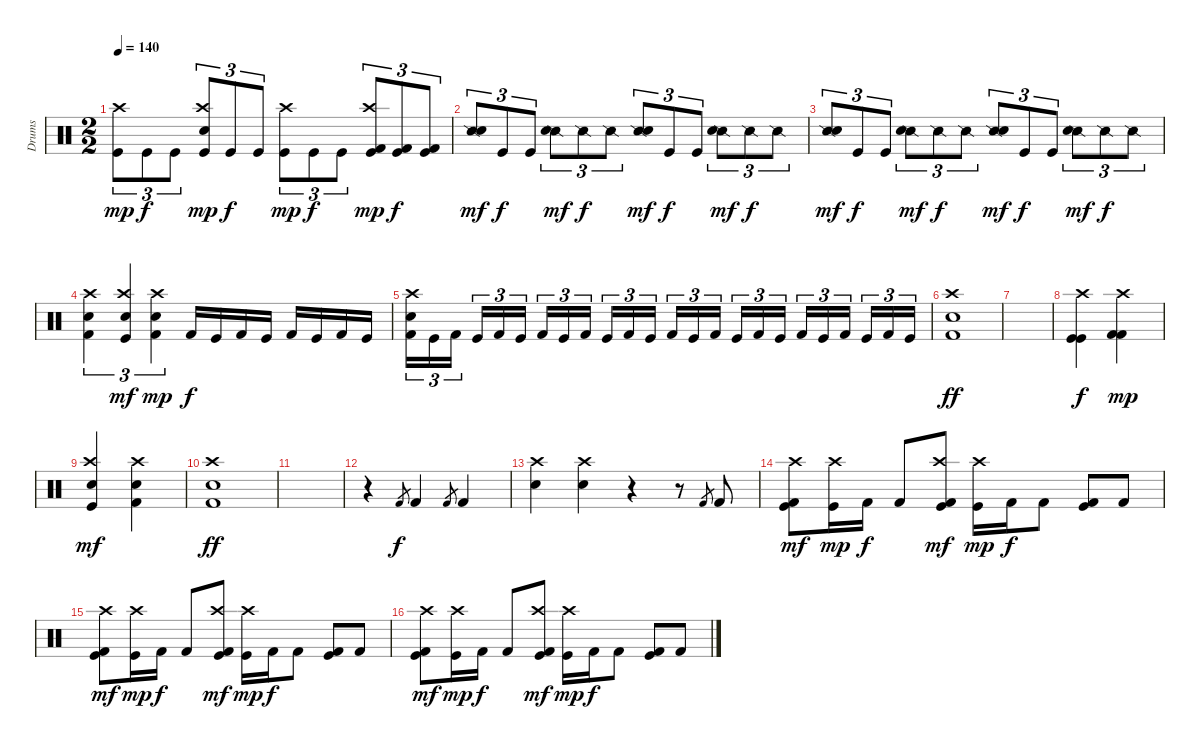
\track ("Drums" "Drums") {instrument percussion}
\staff {score}
\articulation defaults
\ts (2 2)
\tempo 140
\clef neutral
\ks c
("Kick (hit)" "Crash high (hit)").8{tu (3 2) dy mp} "Kick (hit)".8{tu (3 2) dy f} "Kick (hit)".8{tu (3 2)} ("Kick (hit)" "Crash high (hit)" "Snare (hit) 2").8{tu (3 2) dy mp} "Kick (hit)".8{tu (3 2) dy f} "Kick (hit)".8{tu (3 2)} ("Kick (hit)" "Crash high (hit)").8{tu (3 2) dy mp} "Kick (hit)".8{tu (3 2) dy f} "Kick (hit)".8{tu (3 2)} ("Kick (hit)" "Crash high (hit)" "Kick (hit) 2").8{tu (3 2) dy mp} ("Kick (hit)" "Kick (hit) 2").8{tu (3 2) dy f} ("Kick (hit)" "Kick (hit) 2").8{tu (3 2)} |
("Snare (side stick) 2" "Snare (hit) 2").8{tu (3 2) dy mf} "Kick (hit)".8{tu (3 2) dy f} "Kick (hit)".8{tu (3 2)} ("Snare (side stick) 2" "Snare (hit) 2").8{tu (3 2) dy mf} "Snare (side stick) 2".8{tu (3 2) dy f} "Snare (side stick) 2".8{tu (3 2)} ("Snare (side stick) 2" "Snare (hit) 2").8{tu (3 2) dy mf} "Kick (hit)".8{tu (3 2) dy f} "Kick (hit)".8{tu (3 2)} ("Snare (side stick) 2" "Snare (hit) 2").8{tu (3 2) dy mf} "Snare (side stick) 2".8{tu (3 2) dy f} "Snare (side stick) 2".8{tu (3 2)} |
("Snare (side stick) 2" "Snare (hit) 2").8{tu (3 2) dy mf} "Kick (hit)".8{tu (3 2) dy f} "Kick (hit)".8{tu (3 2)} ("Snare (side stick) 2" "Snare (hit) 2").8{tu (3 2) dy mf} "Snare (side stick) 2".8{tu (3 2) dy f} "Snare (side stick) 2".8{tu (3 2)} ("Snare (side stick) 2" "Snare (hit) 2").8{tu (3 2) dy mf} "Kick (hit)".8{tu (3 2) dy f} "Kick (hit)".8{tu (3 2)} ("Snare (side stick) 2" "Snare (hit) 2").8{tu (3 2) dy mf} "Snare (side stick) 2".8{tu (3 2) dy f} "Snare (side stick) 2".8{tu (3 2)} |
("Kick (hit) 2" "Snare (hit) 2" "Crash high (hit)").4{tu (3 2)} ("Snare (hit) 2" "Kick (hit)" "Crash high (hit)").4{tu (3 2) dy mf} ("Snare (hit) 2" "Kick (hit) 2" "Crash high (hit)").4{tu (3 2) dy mp} "Kick (hit) 2".16{dy f} "Kick (hit)".16 "Kick (hit) 2".16 "Kick (hit)".16 "Kick (hit) 2".16 "Kick (hit)".16 "Kick (hit) 2".16 "Kick (hit)".16 |
("Kick (hit) 2" "Snare (hit) 2" "Crash high (hit)").16{tu (3 2)} "Kick (hit)".16{tu (3 2)} "Kick (hit) 2".16{tu (3 2)} "Kick (hit)".16{tu (3 2)} "Kick (hit) 2".16{tu (3 2)} "Kick (hit)".16{tu (3 2)} "Kick (hit) 2".16{tu (3 2)} "Kick (hit)".16{tu (3 2)} "Kick (hit) 2".16{tu (3 2)} "Kick (hit)".16{tu (3 2)} "Kick (hit) 2".16{tu (3 2)} "Kick (hit)".16{tu (3 2)} "Kick (hit) 2".16{tu (3 2)} "Kick (hit)".16{tu (3 2)} "Kick (hit) 2".16{tu (3 2)} "Kick (hit)".16{tu (3 2)} "Kick (hit) 2".16{tu (3 2)} "Kick (hit)".16{tu (3 2)} "Kick (hit) 2".16{tu (3 2)} "Kick (hit)".16{tu (3 2)} "Kick (hit) 2".16{tu (3 2)} "Kick (hit)".16{tu (3 2)} "Kick (hit) 2".16{tu (3 2)} "Kick (hit)".16{tu (3 2)} |
("Kick (hit) 2" "Snare (hit) 2" "Crash high (hit)").1{dy ff} |
|
("Kick (hit)" "Kick (hit)" "Crash high (hit)").4{dy f} ("Kick (hit) 2" "Kick (hit) 2" "Crash high (hit)").4{dy mp} |
("Snare (hit) 2" "Kick (hit)" "Crash high (hit)").4{dy mf} ("Snare (hit) 2" "Kick (hit) 2" "Crash high (hit)").4 |
("Kick (hit) 2" "Snare (hit) 2" "Crash high (hit)").1{dy ff} |
|
r.4 "Kick (hit) 2".8{gr dy f} "Kick (hit) 2".4 "Kick (hit) 2".8{gr} "Kick (hit) 2".4 |
("Snare (hit) 2" "Crash high (hit)").4 ("Snare (hit) 2" "Crash high (hit)").4 r.4 r.8 "Kick (hit) 2".8{gr} "Kick (hit) 2".8 |
("Kick (hit)" "Kick (hit) 2" "Crash high (hit)").8{dy mf} ("Kick (hit)" "Crash high (hit)").16{dy mp} "Kick (hit) 2".16{dy f} "Kick (hit) 2".8 ("Kick (hit)" "Kick (hit) 2" "Crash high (hit)").8{dy mf} ("Kick (hit)" "Crash high (hit)").16{dy mp} "Kick (hit) 2".16{dy f} "Kick (hit) 2".8 ("Kick (hit)" "Kick (hit) 2").8 "Kick (hit) 2".8 |
("Kick (hit)" "Kick (hit) 2" "Crash high (hit)").8{dy mf} ("Kick (hit)" "Crash high (hit)").16{dy mp} "Kick (hit) 2".16{dy f} "Kick (hit) 2".8 ("Kick (hit)" "Kick (hit) 2" "Crash high (hit)").8{dy mf} ("Kick (hit)" "Crash high (hit)").16{dy mp} "Kick (hit) 2".16{dy f} "Kick (hit) 2".8 ("Kick (hit)" "Kick (hit) 2").8 "Kick (hit) 2".8 |
("Kick (hit)" "Kick (hit) 2" "Crash high (hit)").8{dy mf} ("Kick (hit)" "Crash high (hit)").16{dy mp} "Kick (hit) 2".16{dy f} "Kick (hit) 2".8 ("Kick (hit)" "Kick (hit) 2" "Crash high (hit)").8{dy mf} ("Kick (hit)" "Crash high (hit)").16{dy mp} "Kick (hit) 2".16{dy f} "Kick (hit) 2".8 ("Kick (hit)" "Kick (hit) 2").8 "Kick (hit) 2".8
